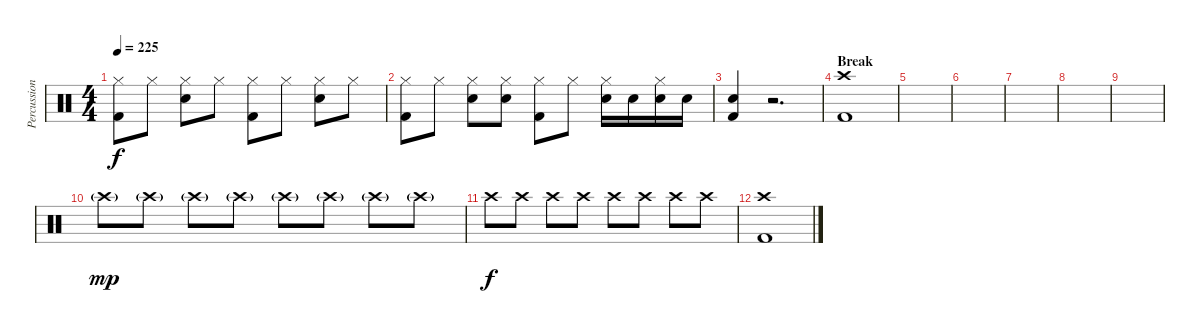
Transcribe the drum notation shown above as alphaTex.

\track ("Percussions" "Percussion") {instrument percussion}
\staff {score}
\articulation defaults
\ts (4 4)
\tempo 225
\clef neutral
\ks c
("Hi-Hat (closed)" "Kick (hit) 2").8{dy f} "Hi-Hat (closed)".8 ("Hi-Hat (closed)" "Snare (hit) 2").8 "Hi-Hat (closed)".8 ("Hi-Hat (closed)" "Kick (hit) 2").8 "Hi-Hat (closed)".8 ("Hi-Hat (closed)" "Snare (hit) 2").8 "Hi-Hat (closed)".8 |
("Hi-Hat (closed)" "Kick (hit) 2").8 "Hi-Hat (closed)".8 ("Hi-Hat (closed)" "Snare (hit) 2").8 ("Hi-Hat (closed)" "Snare (hit) 2").8 ("Hi-Hat (closed)" "Kick (hit) 2").8 "Hi-Hat (closed)".8 ("Hi-Hat (closed)" "Snare (hit) 2").16 "Snare (hit) 2".16 ("Hi-Hat (closed)" "Snare (hit) 2").16 "Snare (hit) 2".16 |
("Snare (hit) 2" "Kick (hit) 2").4 r.2{d} |
\section ("" "Break")
("Crash high (hit)" "Kick (hit) 2").1 |
|
|
|
|
|
"Crash high (hit)"{g}.8{dy mp} "Crash high (hit)"{g}.8 "Crash high (hit)"{g}.8 "Crash high (hit)"{g}.8 "Crash high (hit)"{g}.8 "Crash high (hit)"{g}.8 "Crash high (hit)"{g}.8 "Crash high (hit)"{g}.8 |
"Crash high (hit)".8{dy f} "Crash high (hit)".8 "Crash high (hit)".8 "Crash high (hit)".8 "Crash high (hit)".8 "Crash high (hit)".8 "Crash high (hit)".8 "Crash high (hit)".8 |
("Crash high (hit)" "Kick (hit) 2").1
